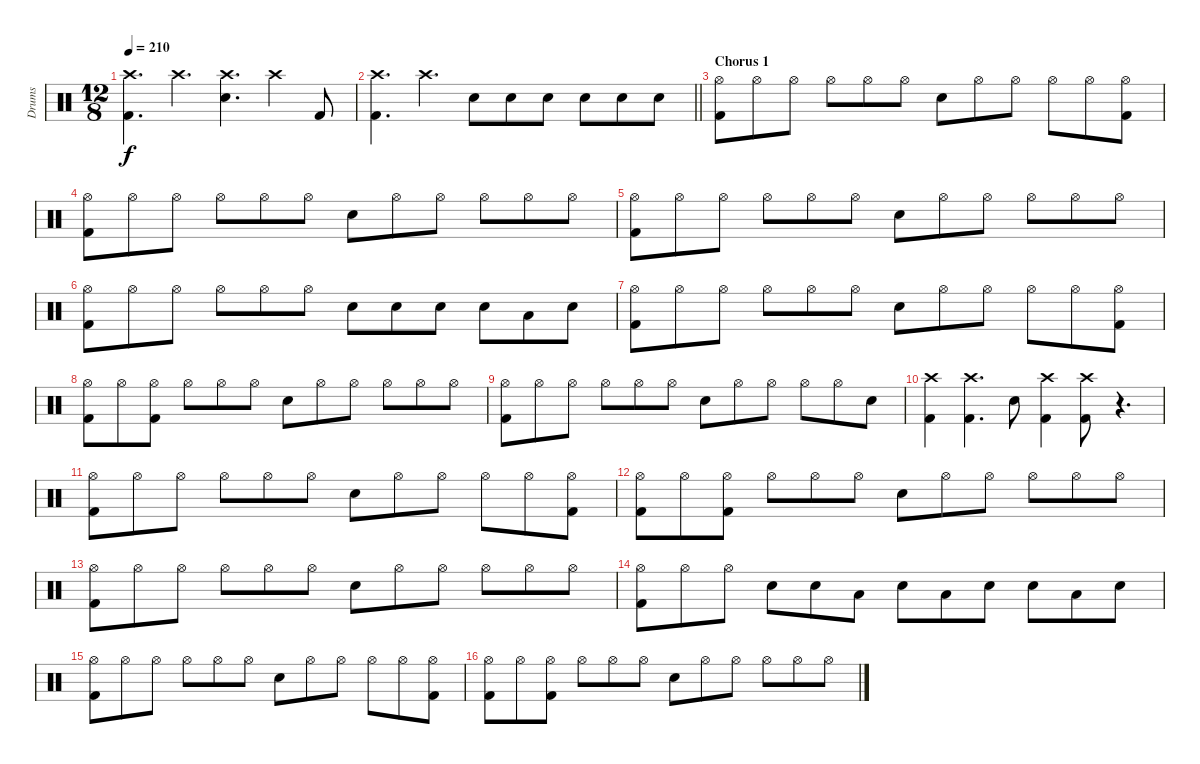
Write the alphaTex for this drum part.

\track ("Drums" "Drums") {instrument percussion}
\staff {score}
\articulation defaults
\ts (12 8)
\tempo 210
\clef neutral
\ks c
("Crash high (hit)" "Kick (hit) 2").4{d dy f} "Crash high (hit)".4{d} ("Crash high (hit)" "Electric Snare (hit)").4{d} "Crash high (hit)".4 "Kick (hit) 2".8 |
\barLineRight lightlight
("Crash high (hit)" "Kick (hit) 2").4{d} "Crash high (hit)".4{d} "Electric Snare (hit)".8 "Electric Snare (hit)".8 "Electric Snare (hit)".8 "Electric Snare (hit)".8 "Electric Snare (hit)".8 "Electric Snare (hit)".8 |
\section ("" "Chorus 1")
("Hi-Hat (open)" "Kick (hit) 2").8 "Hi-Hat (open)".8 "Hi-Hat (open)".8 "Hi-Hat (open)".8 "Hi-Hat (open)".8 "Hi-Hat (open)".8 "Electric Snare (hit)".8 "Hi-Hat (open)".8 "Hi-Hat (open)".8 "Hi-Hat (open)".8 "Hi-Hat (open)".8 ("Hi-Hat (open)" "Kick (hit) 2").8 |
("Hi-Hat (open)" "Kick (hit) 2").8 "Hi-Hat (open)".8 "Hi-Hat (open)".8 "Hi-Hat (open)".8 "Hi-Hat (open)".8 "Hi-Hat (open)".8 "Electric Snare (hit)".8 "Hi-Hat (open)".8 "Hi-Hat (open)".8 "Hi-Hat (open)".8 "Hi-Hat (open)".8 "Hi-Hat (open)".8 |
("Hi-Hat (open)" "Kick (hit) 2").8 "Hi-Hat (open)".8 "Hi-Hat (open)".8 "Hi-Hat (open)".8 "Hi-Hat (open)".8 "Hi-Hat (open)".8 "Electric Snare (hit)".8 "Hi-Hat (open)".8 "Hi-Hat (open)".8 "Hi-Hat (open)".8 "Hi-Hat (open)".8 "Hi-Hat (open)".8 |
("Hi-Hat (open)" "Kick (hit) 2").8 "Hi-Hat (open)".8 "Hi-Hat (open)".8 "Hi-Hat (open)".8 "Hi-Hat (open)".8 "Hi-Hat (open)".8 "Electric Snare (hit)".8 "Electric Snare (hit)".8 "Electric Snare (hit)".8 "Electric Snare (hit)".8 "Low Tom (hit)".8 "Electric Snare (hit)".8 |
("Hi-Hat (open)" "Kick (hit) 2").8 "Hi-Hat (open)".8 "Hi-Hat (open)".8 "Hi-Hat (open)".8 "Hi-Hat (open)".8 "Hi-Hat (open)".8 "Electric Snare (hit)".8 "Hi-Hat (open)".8 "Hi-Hat (open)".8 "Hi-Hat (open)".8 "Hi-Hat (open)".8 ("Hi-Hat (open)" "Kick (hit) 2").8 |
("Hi-Hat (open)" "Kick (hit) 2").8 "Hi-Hat (open)".8 ("Hi-Hat (open)" "Kick (hit) 2").8 "Hi-Hat (open)".8 "Hi-Hat (open)".8 "Hi-Hat (open)".8 "Electric Snare (hit)".8 "Hi-Hat (open)".8 "Hi-Hat (open)".8 "Hi-Hat (open)".8 "Hi-Hat (open)".8 "Hi-Hat (open)".8 |
("Hi-Hat (open)" "Kick (hit) 2").8 "Hi-Hat (open)".8 "Hi-Hat (open)".8 "Hi-Hat (open)".8 "Hi-Hat (open)".8 "Hi-Hat (open)".8 "Electric Snare (hit)".8 "Hi-Hat (open)".8 "Hi-Hat (open)".8 "Hi-Hat (open)".8 "Hi-Hat (open)".8 "Electric Snare (hit)".8 |
("Crash high (hit)" "Kick (hit) 2").4 ("Crash high (hit)" "Kick (hit) 2").4{d} "Electric Snare (hit)".8 ("Crash high (hit)" "Kick (hit) 2").4 ("Crash high (hit)" "Kick (hit) 2").8 r.4{d} |
("Hi-Hat (open)" "Kick (hit) 2").8 "Hi-Hat (open)".8 "Hi-Hat (open)".8 "Hi-Hat (open)".8 "Hi-Hat (open)".8 "Hi-Hat (open)".8 "Electric Snare (hit)".8 "Hi-Hat (open)".8 "Hi-Hat (open)".8 "Hi-Hat (open)".8 "Hi-Hat (open)".8 ("Hi-Hat (open)" "Kick (hit) 2").8 |
("Hi-Hat (open)" "Kick (hit) 2").8 "Hi-Hat (open)".8 ("Hi-Hat (open)" "Kick (hit) 2").8 "Hi-Hat (open)".8 "Hi-Hat (open)".8 "Hi-Hat (open)".8 "Electric Snare (hit)".8 "Hi-Hat (open)".8 "Hi-Hat (open)".8 "Hi-Hat (open)".8 "Hi-Hat (open)".8 "Hi-Hat (open)".8 |
("Hi-Hat (open)" "Kick (hit) 2").8 "Hi-Hat (open)".8 "Hi-Hat (open)".8 "Hi-Hat (open)".8 "Hi-Hat (open)".8 "Hi-Hat (open)".8 "Electric Snare (hit)".8 "Hi-Hat (open)".8 "Hi-Hat (open)".8 "Hi-Hat (open)".8 "Hi-Hat (open)".8 "Hi-Hat (open)".8 |
("Hi-Hat (open)" "Kick (hit) 2").8 "Hi-Hat (open)".8 "Hi-Hat (open)".8 "Electric Snare (hit)".8 "Electric Snare (hit)".8 "Low Tom (hit)".8 "Electric Snare (hit)".8 "Low Tom (hit)".8 "Electric Snare (hit)".8 "Electric Snare (hit)".8 "Low Tom (hit)".8 "Electric Snare (hit)".8 |
("Hi-Hat (open)" "Kick (hit) 2").8 "Hi-Hat (open)".8 "Hi-Hat (open)".8 "Hi-Hat (open)".8 "Hi-Hat (open)".8 "Hi-Hat (open)".8 "Electric Snare (hit)".8 "Hi-Hat (open)".8 "Hi-Hat (open)".8 "Hi-Hat (open)".8 "Hi-Hat (open)".8 ("Hi-Hat (open)" "Kick (hit) 2").8 |
("Hi-Hat (open)" "Kick (hit) 2").8 "Hi-Hat (open)".8 ("Hi-Hat (open)" "Kick (hit) 2").8 "Hi-Hat (open)".8 "Hi-Hat (open)".8 "Hi-Hat (open)".8 "Electric Snare (hit)".8 "Hi-Hat (open)".8 "Hi-Hat (open)".8 "Hi-Hat (open)".8 "Hi-Hat (open)".8 "Hi-Hat (open)".8
